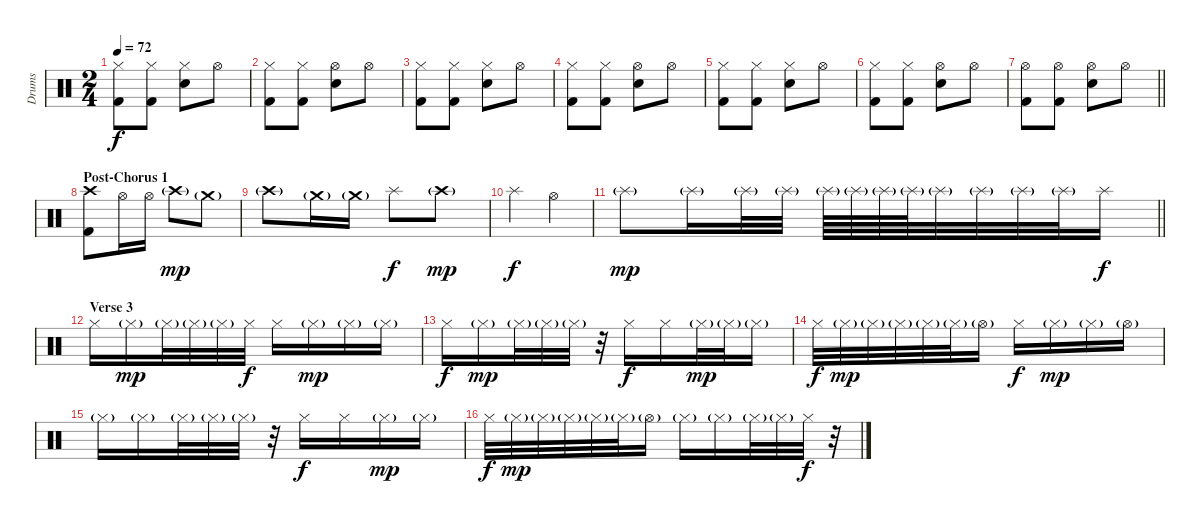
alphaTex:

\track ("Drums" "Drums") {instrument percussion}
\staff {score}
\articulation defaults
\ts (2 4)
\tempo 72
\clef neutral
\ks c
("Hi-Hat (closed)" "Kick (hit) 2").8{dy f} ("Hi-Hat (closed)" "Kick (hit) 2").8 ("Hi-Hat (closed)" "Electric Snare (hit)").8 "Hi-Hat (open)".8 |
("Hi-Hat (closed)" "Kick (hit) 2").8 ("Hi-Hat (closed)" "Kick (hit) 2").8 ("Hi-Hat (open)" "Electric Snare (hit)").8 "Hi-Hat (open)".8 |
("Hi-Hat (closed)" "Kick (hit) 2").8 ("Hi-Hat (closed)" "Kick (hit) 2").8 ("Hi-Hat (closed)" "Electric Snare (hit)").8 "Hi-Hat (open)".8 |
("Hi-Hat (closed)" "Kick (hit) 2").8 ("Hi-Hat (closed)" "Kick (hit) 2").8 ("Hi-Hat (open)" "Electric Snare (hit)").8 "Hi-Hat (open)".8 |
("Hi-Hat (closed)" "Kick (hit) 2").8 ("Hi-Hat (closed)" "Kick (hit) 2").8 ("Hi-Hat (closed)" "Electric Snare (hit)").8 "Hi-Hat (open)".8 |
("Hi-Hat (closed)" "Kick (hit) 2").8 ("Hi-Hat (closed)" "Kick (hit) 2").8 ("Hi-Hat (open)" "Electric Snare (hit)").8 "Hi-Hat (open)".8 |
\barLineRight lightlight
("Hi-Hat (open)" "Kick (hit) 2").8 ("Hi-Hat (open)" "Kick (hit) 2").8 ("Hi-Hat (open)" "Electric Snare (hit)").8 "Hi-Hat (open)".8 |
\section ("" "Post-Chorus 1")
("Crash high (hit)" "Kick (hit) 2").8 "Hi-Hat (open)".16 "Hi-Hat (open)".16 "Crash high (hit)"{g}.8{dy mp} "Crash medium (hit)"{g}.8 |
"Crash high (hit)"{g}.8 "Crash medium (hit)"{g}.16 "Crash medium (hit)"{g}.16 "Splash (hit)".8{dy f} "Crash high (hit)"{g}.8{dy mp} |
"Splash (hit)".4{dy f} "Hi-Hat (open)".4 |
\barLineRight lightlight "Splash (hit)"{g}.8{dy mp} "Splash (hit)"{g}.16 "Splash (hit)"{g}.32 "Splash (hit)"{g}.32 "Splash (hit)"{g}.64 "Splash (hit)"{g}.64 "Splash (hit)"{g}.64 "Splash (hit)"{g}.64 "Splash (hit)"{g}.32 "Splash (hit)"{g}.32 "Splash (hit)"{g}.32 "Splash (hit)"{g}.32 "Splash (hit)".16{dy f}
|
\section ("" "Verse 3")
"Hi-Hat (closed)".16 "Hi-Hat (closed)"{g}.16{dy mp} "Hi-Hat (closed)"{g}.32 "Hi-Hat (closed)"{g}.32 "Hi-Hat (closed)"{g}.32 "Hi-Hat (closed)".32{dy f} "Hi-Hat (closed)".16 "Hi-Hat (closed)"{g}.16{dy mp} "Hi-Hat (closed)"{g}.16 "Hi-Hat (closed)"{g}.16 |
"Hi-Hat (closed)".16{dy f} "Hi-Hat (closed)"{g}.16{dy mp} "Hi-Hat (closed)"{g}.32 "Hi-Hat (closed)"{g}.32 "Hi-Hat (closed)"{g}.32 r.32 "Hi-Hat (closed)".16{dy f} "Hi-Hat (closed)".16 "Hi-Hat (closed)"{g}.32{dy mp} "Hi-Hat (closed)"{g}.32 "Hi-Hat (closed)"{g}.16 |
"Hi-Hat (closed)".32{dy f} "Hi-Hat (closed)"{g}.32{dy mp} "Hi-Hat (closed)"{g}.32 "Hi-Hat (closed)"{g}.32 "Hi-Hat (closed)"{g}.32 "Hi-Hat (closed)"{g}.32 "Hi-Hat (open)"{g}.16 "Hi-Hat (closed)".16{dy f} "Hi-Hat (closed)"{g}.16{dy mp} "Hi-Hat (closed)"{g}.16 "Hi-Hat (open)"{g}.16 |
"Hi-Hat (closed)"{g}.16 "Hi-Hat (closed)"{g}.16 "Hi-Hat (closed)"{g}.32 "Hi-Hat (closed)"{g}.32 "Hi-Hat (closed)"{g}.32 r.32 "Hi-Hat (closed)".16{dy f} "Hi-Hat (closed)".16 "Hi-Hat (closed)"{g}.16{dy mp} "Hi-Hat (closed)"{g}.16 |
"Hi-Hat (closed)".32{dy f} "Hi-Hat (closed)"{g}.32{dy mp} "Hi-Hat (closed)"{g}.32 "Hi-Hat (closed)"{g}.32 "Hi-Hat (closed)"{g}.32 "Hi-Hat (closed)"{g}.32 "Hi-Hat (open)"{g}.16 "Hi-Hat (closed)"{g}.16 "Hi-Hat (closed)"{g}.16 "Hi-Hat (closed)"{g}.32 "Hi-Hat (closed)"{g}.32 "Hi-Hat (closed)".32{dy f} r.32
